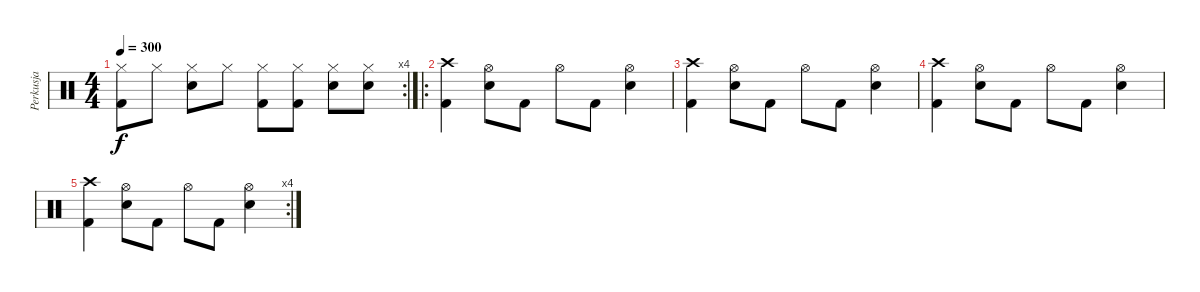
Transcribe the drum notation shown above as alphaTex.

\track ("Perkusja" "Perkusja") {instrument percussion}
\staff {score}
\articulation defaults
\rc 4
\ts (4 4)
\tempo 300
\clef neutral
\ks c
("Kick (hit) 2" "Hi-Hat (closed)").8{dy f} "Hi-Hat (closed)".8 ("Snare (hit) 2" "Hi-Hat (closed)").8 "Hi-Hat (closed)".8 ("Kick (hit) 2" "Hi-Hat (closed)").8 ("Kick (hit) 2" "Hi-Hat (closed)").8 ("Snare (hit) 2" "Hi-Hat (closed)").8 ("Snare (hit) 2" "Hi-Hat (closed)").8 |
\ro
("Crash high (hit)" "Kick (hit) 2").4 ("Hi-Hat (open)" "Electric Snare (hit)").8 "Kick (hit) 2".8 "Hi-Hat (open)".8 "Kick (hit) 2".8 ("Hi-Hat (open)" "Electric Snare (hit)").4 |
("Crash high (hit)" "Kick (hit) 2").4 ("Hi-Hat (open)" "Electric Snare (hit)").8 "Kick (hit) 2".8 "Hi-Hat (open)".8 "Kick (hit) 2".8 ("Hi-Hat (open)" "Electric Snare (hit)").4 |
("Crash high (hit)" "Kick (hit) 2").4 ("Hi-Hat (open)" "Electric Snare (hit)").8 "Kick (hit) 2".8 "Hi-Hat (open)".8 "Kick (hit) 2".8 ("Hi-Hat (open)" "Electric Snare (hit)").4 |
\rc 4
("Crash high (hit)" "Kick (hit) 2").4 ("Hi-Hat (open)" "Electric Snare (hit)").8 "Kick (hit) 2".8 "Hi-Hat (open)".8 "Kick (hit) 2".8 ("Hi-Hat (open)" "Electric Snare (hit)").4
